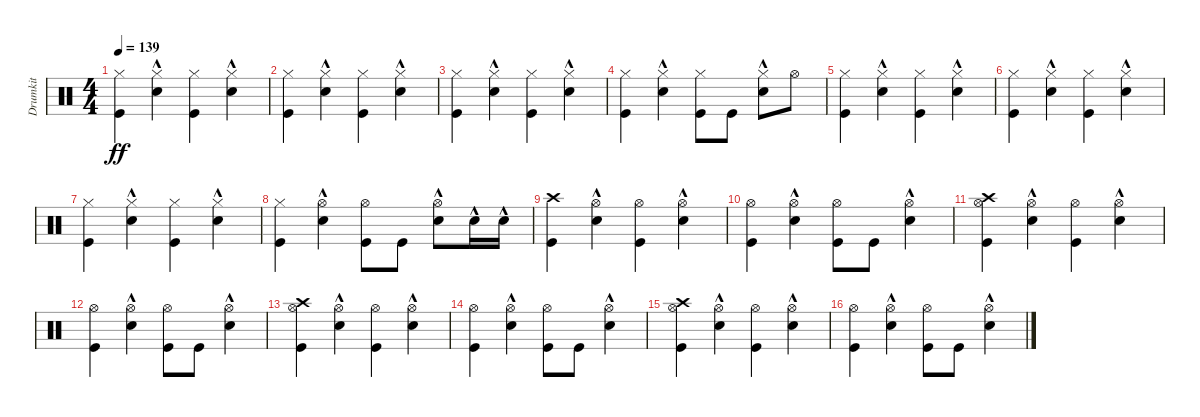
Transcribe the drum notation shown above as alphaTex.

\track ("Drumkit" "Drumkit") {instrument percussion}
\staff {score}
\articulation defaults
\ts (4 4)
\tempo 139
\clef neutral
\ks c
("Kick (hit)" "Hi-Hat (closed)").4{dy ff} ("Snare (hit) 2"{hac} "Hi-Hat (closed)").4 ("Kick (hit)" "Hi-Hat (closed)").4 ("Snare (hit) 2"{hac} "Hi-Hat (closed)").4 |
("Hi-Hat (closed)" "Kick (hit)").4 ("Hi-Hat (closed)" "Snare (hit) 2"{hac}).4 ("Hi-Hat (closed)" "Kick (hit)").4 ("Hi-Hat (closed)" "Snare (hit) 2"{hac}).4 |
("Hi-Hat (closed)" "Kick (hit)").4 ("Hi-Hat (closed)" "Snare (hit) 2"{hac}).4 ("Hi-Hat (closed)" "Kick (hit)").4 ("Hi-Hat (closed)" "Snare (hit) 2"{hac}).4 |
("Hi-Hat (closed)" "Kick (hit)").4 ("Snare (hit) 2"{hac} "Hi-Hat (closed)").4 ("Hi-Hat (closed)" "Kick (hit)").8 "Kick (hit)".8 ("Snare (hit) 2"{hac} "Hi-Hat (closed)").8 "Hi-Hat (open)".8 |
("Kick (hit)" "Hi-Hat (closed)").4 ("Snare (hit) 2"{hac} "Hi-Hat (closed)").4 ("Kick (hit)" "Hi-Hat (closed)").4 ("Snare (hit) 2"{hac} "Hi-Hat (closed)").4 |
("Hi-Hat (closed)" "Kick (hit)").4 ("Hi-Hat (closed)" "Snare (hit) 2"{hac}).4 ("Hi-Hat (closed)" "Kick (hit)").4 ("Hi-Hat (closed)" "Snare (hit) 2"{hac}).4 |
("Hi-Hat (closed)" "Kick (hit)").4 ("Hi-Hat (closed)" "Snare (hit) 2"{hac}).4 ("Hi-Hat (closed)" "Kick (hit)").4 ("Hi-Hat (closed)" "Snare (hit) 2"{hac}).4 |
("Hi-Hat (closed)" "Kick (hit)").4 ("Snare (hit) 2"{hac} "Hi-Hat (open)").4 ("Hi-Hat (open)" "Kick (hit)").8 "Kick (hit)".8 ("Snare (hit) 2"{hac} "Hi-Hat (open)").8 "Snare (hit) 2"{hac}.16 "Snare (hit) 2"{hac}.16 |
("Kick (hit)" "Crash high (hit)").4 ("Snare (hit) 2"{hac} "Hi-Hat (open)").4 ("Kick (hit)" "Hi-Hat (open)").4 ("Snare (hit) 2"{hac} "Hi-Hat (open)").4 |
("Hi-Hat (open)" "Kick (hit)").4 ("Hi-Hat (open)" "Snare (hit) 2"{hac}).4 ("Hi-Hat (open)" "Kick (hit)").8 "Kick (hit)".8 ("Hi-Hat (open)" "Snare (hit) 2"{hac}).4 |
("Kick (hit)" "Crash high (hit)" "Hi-Hat (open)").4 ("Hi-Hat (open)" "Snare (hit) 2"{hac}).4 ("Hi-Hat (open)" "Kick (hit)").4 ("Hi-Hat (open)" "Snare (hit) 2"{hac}).4 |
("Hi-Hat (open)" "Kick (hit)").4 ("Snare (hit) 2"{hac} "Hi-Hat (open)").4 ("Hi-Hat (open)" "Kick (hit)").8 "Kick (hit)".8 ("Snare (hit) 2"{hac} "Hi-Hat (open)").4 |
("Kick (hit)" "Crash high (hit)" "Hi-Hat (open)").4 ("Snare (hit) 2"{hac} "Hi-Hat (open)").4 ("Kick (hit)" "Hi-Hat (open)").4 ("Snare (hit) 2"{hac} "Hi-Hat (open)").4 |
("Hi-Hat (open)" "Kick (hit)").4 ("Hi-Hat (open)" "Snare (hit) 2"{hac}).4 ("Hi-Hat (open)" "Kick (hit)").8 "Kick (hit)".8 ("Hi-Hat (open)" "Snare (hit) 2"{hac}).4 |
("Hi-Hat (open)" "Kick (hit)" "Crash high (hit)").4 ("Hi-Hat (open)" "Snare (hit) 2"{hac}).4 ("Hi-Hat (open)" "Kick (hit)").4 ("Hi-Hat (open)" "Snare (hit) 2"{hac}).4 |
("Hi-Hat (open)" "Kick (hit)").4 ("Snare (hit) 2"{hac} "Hi-Hat (open)").4 ("Hi-Hat (open)" "Kick (hit)").8 "Kick (hit)".8 ("Snare (hit) 2"{hac} "Hi-Hat (open)").4
